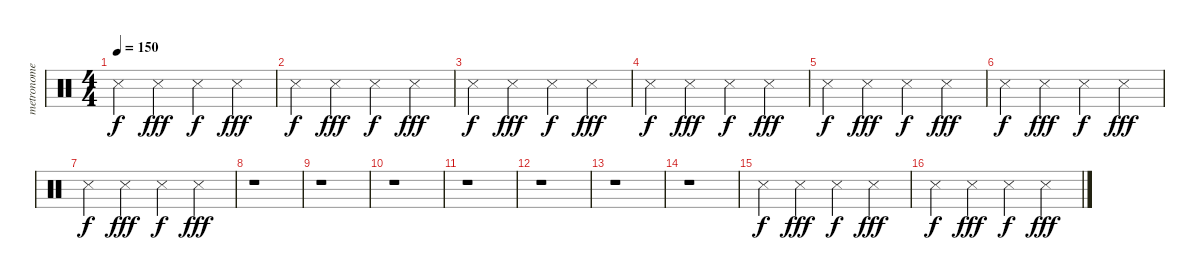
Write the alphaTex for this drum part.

\track ("metronome" "metronome") {instrument percussion}
\staff {score}
\articulation defaults
\ts (4 4)
\tempo 150
\clef neutral
\ks c "Snare (side stick) 3".4{dy f} "Snare (side stick) 3".4{dy fff} "Snare (side stick) 3".4{dy f} "Snare (side stick) 3".4{dy fff}
|
"Snare (side stick) 3".4{dy f} "Snare (side stick) 3".4{dy fff} "Snare (side stick) 3".4{dy f} "Snare (side stick) 3".4{dy fff} |
"Snare (side stick) 3".4{dy f} "Snare (side stick) 3".4{dy fff} "Snare (side stick) 3".4{dy f} "Snare (side stick) 3".4{dy fff} |
"Snare (side stick) 3".4{dy f} "Snare (side stick) 3".4{dy fff} "Snare (side stick) 3".4{dy f} "Snare (side stick) 3".4{dy fff} |
"Snare (side stick) 3".4{dy f} "Snare (side stick) 3".4{dy fff} "Snare (side stick) 3".4{dy f} "Snare (side stick) 3".4{dy fff} |
"Snare (side stick) 3".4{dy f} "Snare (side stick) 3".4{dy fff} "Snare (side stick) 3".4{dy f} "Snare (side stick) 3".4{dy fff} |
"Snare (side stick) 3".4{dy f} "Snare (side stick) 3".4{dy fff} "Snare (side stick) 3".4{dy f} "Snare (side stick) 3".4{dy fff} |
r.1 |
r.1 |
r.1 |
r.1 |
r.1 |
r.1 |
r.1 |
"Snare (side stick) 3".4{dy f} "Snare (side stick) 3".4{dy fff} "Snare (side stick) 3".4{dy f} "Snare (side stick) 3".4{dy fff} |
"Snare (side stick) 3".4{dy f} "Snare (side stick) 3".4{dy fff} "Snare (side stick) 3".4{dy f} "Snare (side stick) 3".4{dy fff}
